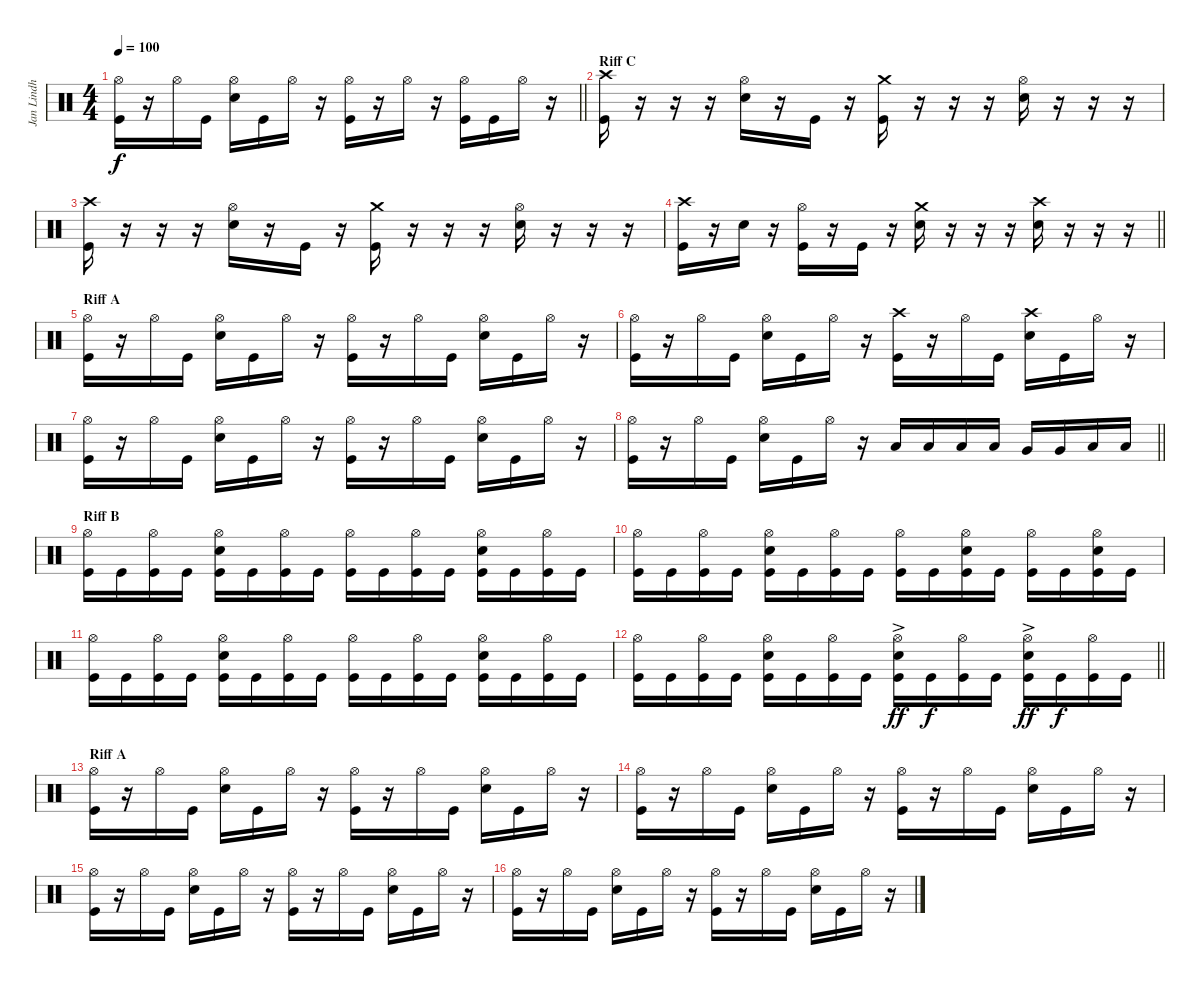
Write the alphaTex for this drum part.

\track ("Jan Lindh" "Jan Lindh") {instrument percussion}
\staff {score}
\articulation defaults
\ts (4 4)
\tempo 100
\clef neutral
\barLineRight lightlight
\ks c
("Hi-Hat (open)" "Kick (hit)").16{dy f} r.16 "Hi-Hat (open)".16 "Kick (hit)".16 ("Hi-Hat (open)" "Snare (hit) 2").16 "Kick (hit)".16 "Hi-Hat (open)".16 r.16 ("Hi-Hat (open)" "Kick (hit)").16 r.16 "Hi-Hat (open)".16 r.16 ("Hi-Hat (open)" "Kick (hit)").16 "Kick (hit)".16 "Hi-Hat (open)".16 r.16 |
\section ("" "Riff C")
("Crash high (hit)" "Kick (hit)").16 r.16 r.16 r.16 ("Hi-Hat (open)" "Snare (hit) 2").16 r.16 "Kick (hit)".16 r.16 ("Crash medium (hit)" "Kick (hit)").16 r.16 r.16 r.16 ("Hi-Hat (open)" "Snare (hit) 2").16 r.16 r.16 r.16 |
("Crash high (hit)" "Kick (hit)").16 r.16 r.16 r.16 ("Hi-Hat (open)" "Snare (hit) 2").16 r.16 "Kick (hit)".16 r.16 ("Crash medium (hit)" "Kick (hit)").16 r.16 r.16 r.16 ("Hi-Hat (open)" "Snare (hit) 2").16 r.16 r.16 r.16 |
\barLineRight lightlight
("Crash high (hit)" "Kick (hit)").16 r.16 "Snare (hit) 2".16 r.16 ("Hi-Hat (open)" "Kick (hit)").16 r.16 "Kick (hit)".16 r.16 ("Crash medium (hit)" "Snare (hit) 2").16 r.16 r.16 r.16 ("Crash high (hit)" "Snare (hit) 2").16 r.16 r.16 r.16 |
\section ("" "Riff A")
("Hi-Hat (open)" "Kick (hit)").16 r.16 "Hi-Hat (open)".16 "Kick (hit)".16 ("Hi-Hat (open)" "Snare (hit) 2").16 "Kick (hit)".16 "Hi-Hat (open)".16 r.16 ("Hi-Hat (open)" "Kick (hit)").16 r.16 "Hi-Hat (open)".16 "Kick (hit)".16 ("Hi-Hat (open)" "Snare (hit) 2").16 "Kick (hit)".16 "Hi-Hat (open)".16 r.16 |
("Hi-Hat (open)" "Kick (hit)").16 r.16 "Hi-Hat (open)".16 "Kick (hit)".16 ("Hi-Hat (open)" "Snare (hit) 2").16 "Kick (hit)".16 "Hi-Hat (open)".16 r.16 ("Crash high (hit)" "Kick (hit)").16 r.16 "Hi-Hat (open)".16 "Kick (hit)".16 ("Crash high (hit)" "Snare (hit) 2").16 "Kick (hit)".16 "Hi-Hat (open)".16 r.16 |
("Hi-Hat (open)" "Kick (hit)").16 r.16 "Hi-Hat (open)".16 "Kick (hit)".16 ("Hi-Hat (open)" "Snare (hit) 2").16 "Kick (hit)".16 "Hi-Hat (open)".16 r.16 ("Hi-Hat (open)" "Kick (hit)").16 r.16 "Hi-Hat (open)".16 "Kick (hit)".16 ("Hi-Hat (open)" "Snare (hit) 2").16 "Kick (hit)".16 "Hi-Hat (open)".16 r.16 |
\barLineRight lightlight
("Hi-Hat (open)" "Kick (hit)").16 r.16 "Hi-Hat (open)".16 "Kick (hit)".16 ("Hi-Hat (open)" "Snare (hit) 2").16 "Kick (hit)".16 "Hi-Hat (open)".16 r.16 "Low Tom (hit)".16 "Low Tom (hit)".16 "Low Tom (hit)".16 "Low Tom (hit)".16 "Very Low Tom (hit)".16 "Very Low Tom (hit)".16 "Low Floor Tom (hit)".16 "Low Floor Tom (hit)".16 |
\section ("" "Riff B")
("Hi-Hat (open)" "Kick (hit)").16 "Kick (hit)".16 ("Hi-Hat (open)" "Kick (hit)").16 "Kick (hit)".16 ("Hi-Hat (open)" "Snare (hit) 2" "Kick (hit)").16 "Kick (hit)".16 ("Hi-Hat (open)" "Kick (hit)").16 "Kick (hit)".16 ("Hi-Hat (open)" "Kick (hit)").16 "Kick (hit)".16 ("Hi-Hat (open)" "Kick (hit)").16 "Kick (hit)".16 ("Hi-Hat (open)" "Snare (hit) 2" "Kick (hit)").16 "Kick (hit)".16 ("Hi-Hat (open)" "Kick (hit)").16 "Kick (hit)".16 |
("Hi-Hat (open)" "Kick (hit)").16 "Kick (hit)".16 ("Hi-Hat (open)" "Kick (hit)").16 "Kick (hit)".16 ("Hi-Hat (open)" "Snare (hit) 2" "Kick (hit)").16 "Kick (hit)".16 ("Hi-Hat (open)" "Kick (hit)").16 "Kick (hit)".16 ("Hi-Hat (open)" "Kick (hit)").16 "Kick (hit)".16 ("Hi-Hat (open)" "Snare (hit) 2" "Kick (hit)").16 "Kick (hit)".16 ("Hi-Hat (open)" "Kick (hit)").16 "Kick (hit)".16 ("Hi-Hat (open)" "Snare (hit) 2" "Kick (hit)").16 "Kick (hit)".16 |
("Hi-Hat (open)" "Kick (hit)").16 "Kick (hit)".16 ("Hi-Hat (open)" "Kick (hit)").16 "Kick (hit)".16 ("Hi-Hat (open)" "Snare (hit) 2" "Kick (hit)").16 "Kick (hit)".16 ("Hi-Hat (open)" "Kick (hit)").16 "Kick (hit)".16 ("Hi-Hat (open)" "Kick (hit)").16 "Kick (hit)".16 ("Hi-Hat (open)" "Kick (hit)").16 "Kick (hit)".16 ("Hi-Hat (open)" "Snare (hit) 2" "Kick (hit)").16 "Kick (hit)".16 ("Hi-Hat (open)" "Kick (hit)").16 "Kick (hit)".16 |
\barLineRight lightlight
("Hi-Hat (open)" "Kick (hit)").16 "Kick (hit)".16 ("Hi-Hat (open)" "Kick (hit)").16 "Kick (hit)".16 ("Hi-Hat (open)" "Snare (hit) 2" "Kick (hit)").16 "Kick (hit)".16 ("Hi-Hat (open)" "Kick (hit)").16 "Kick (hit)".16 ("Hi-Hat (open)" "Snare (hit) 2"{ac} "Kick (hit)").16{dy ff} "Kick (hit)".16{dy f} ("Hi-Hat (open)" "Kick (hit)").16 "Kick (hit)".16 ("Hi-Hat (open)" "Snare (hit) 2"{ac} "Kick (hit)").16{dy ff} "Kick (hit)".16{dy f} ("Hi-Hat (open)" "Kick (hit)").16 "Kick (hit)".16 |
\section ("" "Riff A")
("Hi-Hat (open)" "Kick (hit)").16 r.16 "Hi-Hat (open)".16 "Kick (hit)".16 ("Hi-Hat (open)" "Snare (hit) 2").16 "Kick (hit)".16 "Hi-Hat (open)".16 r.16 ("Hi-Hat (open)" "Kick (hit)").16 r.16 "Hi-Hat (open)".16 "Kick (hit)".16 ("Hi-Hat (open)" "Snare (hit) 2").16 "Kick (hit)".16 "Hi-Hat (open)".16 r.16 |
("Hi-Hat (open)" "Kick (hit)").16 r.16 "Hi-Hat (open)".16 "Kick (hit)".16 ("Hi-Hat (open)" "Snare (hit) 2").16 "Kick (hit)".16 "Hi-Hat (open)".16 r.16 ("Hi-Hat (open)" "Kick (hit)").16 r.16 "Hi-Hat (open)".16 "Kick (hit)".16 ("Hi-Hat (open)" "Snare (hit) 2").16 "Kick (hit)".16 "Hi-Hat (open)".16 r.16 |
("Hi-Hat (open)" "Kick (hit)").16 r.16 "Hi-Hat (open)".16 "Kick (hit)".16 ("Hi-Hat (open)" "Snare (hit) 2").16 "Kick (hit)".16 "Hi-Hat (open)".16 r.16 ("Hi-Hat (open)" "Kick (hit)").16 r.16 "Hi-Hat (open)".16 "Kick (hit)".16 ("Hi-Hat (open)" "Snare (hit) 2").16 "Kick (hit)".16 "Hi-Hat (open)".16 r.16 |
("Hi-Hat (open)" "Kick (hit)").16 r.16 "Hi-Hat (open)".16 "Kick (hit)".16 ("Hi-Hat (open)" "Snare (hit) 2").16 "Kick (hit)".16 "Hi-Hat (open)".16 r.16 ("Hi-Hat (open)" "Kick (hit)").16 r.16 "Hi-Hat (open)".16 "Kick (hit)".16 ("Hi-Hat (open)" "Snare (hit) 2").16 "Kick (hit)".16 "Hi-Hat (open)".16 r.16
